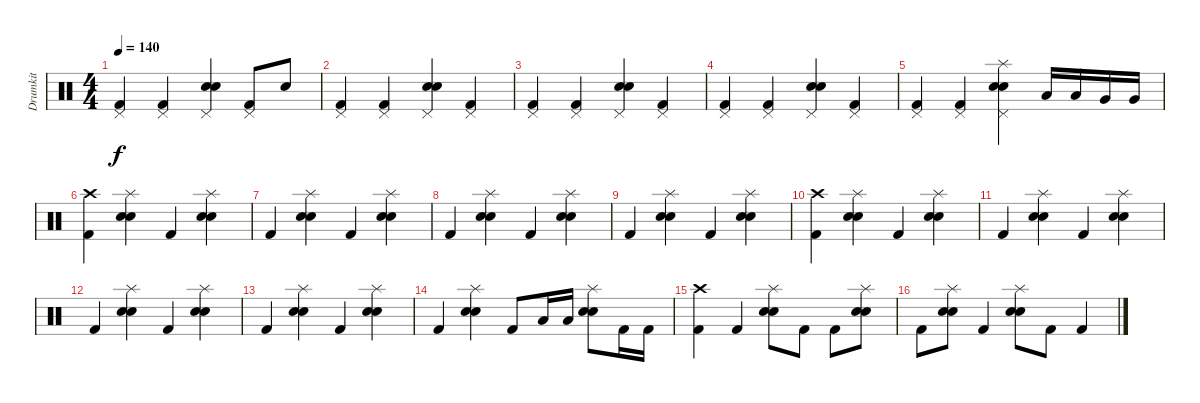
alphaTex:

\track ("Drumkit" "Drumkit") {instrument percussion}
\staff {score}
\articulation defaults
\ts (4 4)
\tempo 140
\clef neutral
\ks c
("Pedal Hi-Hat (hit)" "Kick (hit) 2").4{dy f} ("Pedal Hi-Hat (hit)" "Kick (hit) 2").4 ("Electric Snare (hit)" "Snare (hit) 2" "Pedal Hi-Hat (hit)").4 ("Pedal Hi-Hat (hit)" "Kick (hit) 2").8 "Electric Snare (hit)".8 |
("Pedal Hi-Hat (hit)" "Kick (hit) 2").4 ("Pedal Hi-Hat (hit)" "Kick (hit) 2").4 ("Electric Snare (hit)" "Snare (hit) 2" "Pedal Hi-Hat (hit)").4 ("Pedal Hi-Hat (hit)" "Kick (hit) 2").4 |
("Pedal Hi-Hat (hit)" "Kick (hit) 2").4 ("Pedal Hi-Hat (hit)" "Kick (hit) 2").4 ("Electric Snare (hit)" "Snare (hit) 2" "Pedal Hi-Hat (hit)").4 ("Pedal Hi-Hat (hit)" "Kick (hit) 2").4 |
("Pedal Hi-Hat (hit)" "Kick (hit) 2").4 ("Pedal Hi-Hat (hit)" "Kick (hit) 2").4 ("Electric Snare (hit)" "Snare (hit) 2" "Pedal Hi-Hat (hit)").4 ("Pedal Hi-Hat (hit)" "Kick (hit) 2").4 |
("Pedal Hi-Hat (hit)" "Kick (hit) 2").4 ("Pedal Hi-Hat (hit)" "Kick (hit) 2").4 ("Splash (hit)" "Electric Snare (hit)" "Snare (hit) 2" "Pedal Hi-Hat (hit)").4 "Low Tom (hit)".16 "Low Tom (hit)".16 "Very Low Tom (hit)".16 "Very Low Tom (hit)".16 |
("Crash high (hit)" "Kick (hit) 2").4 ("Splash (hit)" "Electric Snare (hit)" "Snare (hit) 2").4 "Kick (hit) 2".4 ("Splash (hit)" "Electric Snare (hit)" "Snare (hit) 2").4 |
"Kick (hit) 2".4 ("Splash (hit)" "Electric Snare (hit)" "Snare (hit) 2").4 "Kick (hit) 2".4 ("Splash (hit)" "Electric Snare (hit)" "Snare (hit) 2").4 |
"Kick (hit) 2".4 ("Splash (hit)" "Electric Snare (hit)" "Snare (hit) 2").4 "Kick (hit) 2".4 ("Splash (hit)" "Electric Snare (hit)" "Snare (hit) 2").4 |
"Kick (hit) 2".4 ("Splash (hit)" "Electric Snare (hit)" "Snare (hit) 2").4 "Kick (hit) 2".4 ("Splash (hit)" "Electric Snare (hit)" "Snare (hit) 2").4 |
("Crash high (hit)" "Kick (hit) 2").4 ("Splash (hit)" "Electric Snare (hit)" "Snare (hit) 2").4 "Kick (hit) 2".4 ("Splash (hit)" "Electric Snare (hit)" "Snare (hit) 2").4 |
"Kick (hit) 2".4 ("Splash (hit)" "Electric Snare (hit)" "Snare (hit) 2").4 "Kick (hit) 2".4 ("Splash (hit)" "Electric Snare (hit)" "Snare (hit) 2").4 |
"Kick (hit) 2".4 ("Splash (hit)" "Electric Snare (hit)" "Snare (hit) 2").4 "Kick (hit) 2".4 ("Splash (hit)" "Electric Snare (hit)" "Snare (hit) 2").4 |
"Kick (hit) 2".4 ("Splash (hit)" "Electric Snare (hit)" "Snare (hit) 2").4 "Kick (hit) 2".4 ("Splash (hit)" "Electric Snare (hit)" "Snare (hit) 2").4 |
"Kick (hit) 2".4 ("Splash (hit)" "Electric Snare (hit)" "Snare (hit) 2").4 "Kick (hit) 2".8 "Low Tom (hit)".16 "Low Tom (hit)".16 ("Splash (hit)" "Electric Snare (hit)" "Snare (hit) 2").8 "Kick (hit) 2".16 "Kick (hit) 2".16 |
("Crash high (hit)" "Kick (hit) 2").4 "Kick (hit) 2".4 ("Splash (hit)" "Electric Snare (hit)" "Snare (hit) 2").8 "Kick (hit) 2".8 "Kick (hit) 2".8 ("Splash (hit)" "Electric Snare (hit)" "Snare (hit) 2").8 |
"Kick (hit) 2".8 ("Splash (hit)" "Electric Snare (hit)" "Snare (hit) 2").8 "Kick (hit) 2".4 ("Splash (hit)" "Electric Snare (hit)" "Snare (hit) 2").8 "Kick (hit) 2".8 "Kick (hit) 2".4
